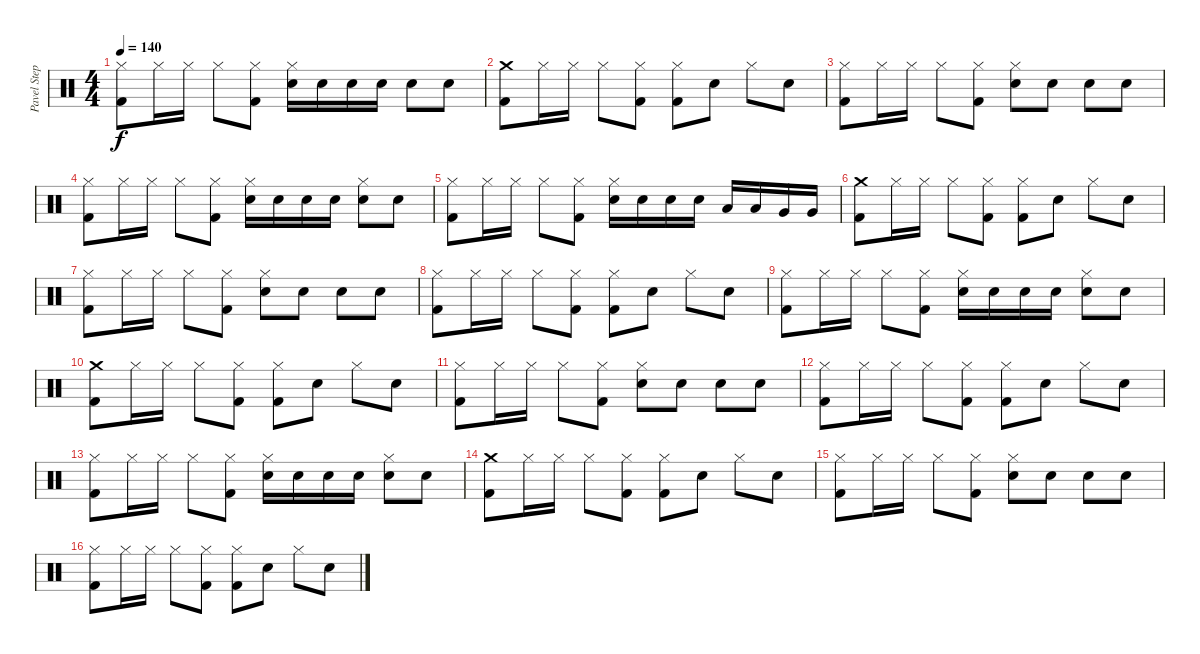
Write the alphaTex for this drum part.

\track ("Pavel Stepan" "Pavel Step") {instrument percussion}
\staff {score}
\articulation defaults
\ts (4 4)
\tempo 140
\clef neutral
\ks c
("Hi-Hat (closed)" "Kick (hit) 2").8{dy f} "Hi-Hat (closed)".16 "Hi-Hat (closed)".16 "Hi-Hat (closed)".8 ("Hi-Hat (closed)" "Kick (hit) 2").8 ("Hi-Hat (closed)" "Snare (hit) 2").16 "Snare (hit) 2".16 "Snare (hit) 2".16 "Snare (hit) 2".16 "Snare (hit) 2".8 "Snare (hit) 2".8 |
("Crash medium (hit)" "Kick (hit) 2").8 "Hi-Hat (closed)".16 "Hi-Hat (closed)".16 "Hi-Hat (closed)".8 ("Hi-Hat (closed)" "Kick (hit) 2").8 ("Hi-Hat (closed)" "Kick (hit) 2").8 "Snare (hit) 2".8 "Hi-Hat (closed)".8 "Snare (hit) 2".8 |
("Hi-Hat (closed)" "Kick (hit) 2").8 "Hi-Hat (closed)".16 "Hi-Hat (closed)".16 "Hi-Hat (closed)".8 ("Hi-Hat (closed)" "Kick (hit) 2").8 ("Hi-Hat (closed)" "Snare (hit) 2").8 "Snare (hit) 2".8 "Snare (hit) 2".8 "Snare (hit) 2".8 |
("Hi-Hat (closed)" "Kick (hit) 2").8 "Hi-Hat (closed)".16 "Hi-Hat (closed)".16 "Hi-Hat (closed)".8 ("Hi-Hat (closed)" "Kick (hit) 2").8 ("Hi-Hat (closed)" "Snare (hit) 2").16 "Snare (hit) 2".16 "Snare (hit) 2".16 "Snare (hit) 2".16 ("Hi-Hat (closed)" "Snare (hit) 2").8 "Snare (hit) 2".8 |
("Hi-Hat (closed)" "Kick (hit) 2").8 "Hi-Hat (closed)".16 "Hi-Hat (closed)".16 "Hi-Hat (closed)".8 ("Hi-Hat (closed)" "Kick (hit) 2").8 ("Hi-Hat (closed)" "Snare (hit) 2").16 "Snare (hit) 2".16 "Snare (hit) 2".16 "Snare (hit) 2".16 "Low Tom (hit)".16 "Low Tom (hit)".16 "Very Low Tom (hit)".16 "Very Low Tom (hit)".16 |
("Crash medium (hit)" "Kick (hit) 2").8 "Hi-Hat (closed)".16 "Hi-Hat (closed)".16 "Hi-Hat (closed)".8 ("Hi-Hat (closed)" "Kick (hit) 2").8 ("Hi-Hat (closed)" "Kick (hit) 2").8 "Snare (hit) 2".8 "Hi-Hat (closed)".8 "Snare (hit) 2".8 |
("Hi-Hat (closed)" "Kick (hit) 2").8 "Hi-Hat (closed)".16 "Hi-Hat (closed)".16 "Hi-Hat (closed)".8 ("Hi-Hat (closed)" "Kick (hit) 2").8 ("Hi-Hat (closed)" "Snare (hit) 2").8 "Snare (hit) 2".8 "Snare (hit) 2".8 "Snare (hit) 2".8 |
("Hi-Hat (closed)" "Kick (hit) 2").8 "Hi-Hat (closed)".16 "Hi-Hat (closed)".16 "Hi-Hat (closed)".8 ("Hi-Hat (closed)" "Kick (hit) 2").8 ("Hi-Hat (closed)" "Kick (hit) 2").8 "Snare (hit) 2".8 "Hi-Hat (closed)".8 "Snare (hit) 2".8 |
("Hi-Hat (closed)" "Kick (hit) 2").8 "Hi-Hat (closed)".16 "Hi-Hat (closed)".16 "Hi-Hat (closed)".8 ("Hi-Hat (closed)" "Kick (hit) 2").8 ("Hi-Hat (closed)" "Snare (hit) 2").16 "Snare (hit) 2".16 "Snare (hit) 2".16 "Snare (hit) 2".16 ("Hi-Hat (closed)" "Snare (hit) 2").8 "Snare (hit) 2".8 |
("Crash medium (hit)" "Kick (hit) 2").8 "Hi-Hat (closed)".16 "Hi-Hat (closed)".16 "Hi-Hat (closed)".8 ("Hi-Hat (closed)" "Kick (hit) 2").8 ("Hi-Hat (closed)" "Kick (hit) 2").8 "Snare (hit) 2".8 "Hi-Hat (closed)".8 "Snare (hit) 2".8 |
("Hi-Hat (closed)" "Kick (hit) 2").8 "Hi-Hat (closed)".16 "Hi-Hat (closed)".16 "Hi-Hat (closed)".8 ("Hi-Hat (closed)" "Kick (hit) 2").8 ("Hi-Hat (closed)" "Snare (hit) 2").8 "Snare (hit) 2".8 "Snare (hit) 2".8 "Snare (hit) 2".8 |
("Hi-Hat (closed)" "Kick (hit) 2").8 "Hi-Hat (closed)".16 "Hi-Hat (closed)".16 "Hi-Hat (closed)".8 ("Hi-Hat (closed)" "Kick (hit) 2").8 ("Hi-Hat (closed)" "Kick (hit) 2").8 "Snare (hit) 2".8 "Hi-Hat (closed)".8 "Snare (hit) 2".8 |
("Hi-Hat (closed)" "Kick (hit) 2").8 "Hi-Hat (closed)".16 "Hi-Hat (closed)".16 "Hi-Hat (closed)".8 ("Hi-Hat (closed)" "Kick (hit) 2").8 ("Hi-Hat (closed)" "Snare (hit) 2").16 "Snare (hit) 2".16 "Snare (hit) 2".16 "Snare (hit) 2".16 ("Hi-Hat (closed)" "Snare (hit) 2").8 "Snare (hit) 2".8 |
("Crash medium (hit)" "Kick (hit) 2").8 "Hi-Hat (closed)".16 "Hi-Hat (closed)".16 "Hi-Hat (closed)".8 ("Hi-Hat (closed)" "Kick (hit) 2").8 ("Hi-Hat (closed)" "Kick (hit) 2").8 "Snare (hit) 2".8 "Hi-Hat (closed)".8 "Snare (hit) 2".8 |
("Hi-Hat (closed)" "Kick (hit) 2").8 "Hi-Hat (closed)".16 "Hi-Hat (closed)".16 "Hi-Hat (closed)".8 ("Hi-Hat (closed)" "Kick (hit) 2").8 ("Hi-Hat (closed)" "Snare (hit) 2").8 "Snare (hit) 2".8 "Snare (hit) 2".8 "Snare (hit) 2".8 |
("Hi-Hat (closed)" "Kick (hit) 2").8 "Hi-Hat (closed)".16 "Hi-Hat (closed)".16 "Hi-Hat (closed)".8 ("Hi-Hat (closed)" "Kick (hit) 2").8 ("Hi-Hat (closed)" "Kick (hit) 2").8 "Snare (hit) 2".8 "Hi-Hat (closed)".8 "Snare (hit) 2".8
